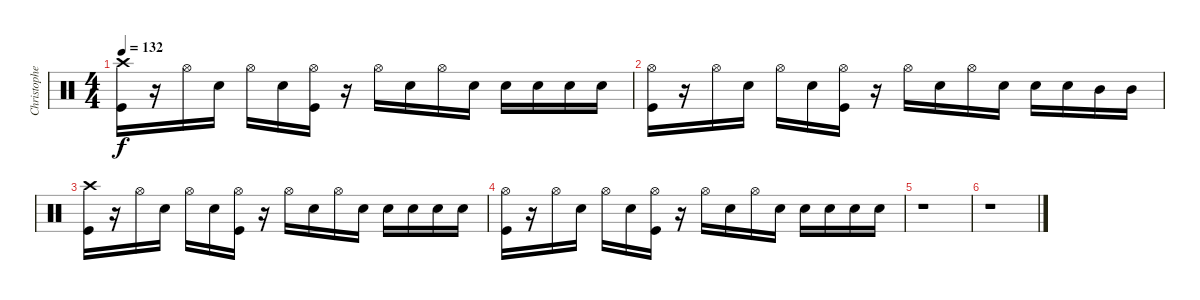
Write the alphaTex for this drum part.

\track ("Christopher - Drums" "Christophe") {instrument percussion}
\staff {score}
\articulation defaults
\ts (4 4)
\tempo 132
\clef neutral
\ks c
("Crash high (hit)" "Kick (hit)").16{dy f} r.16 "Hi-Hat (open)".16 "Snare (hit) 2".16 "Hi-Hat (open)".16 "Snare (hit) 2".16 ("Hi-Hat (open)" "Kick (hit)").16 r.16 "Hi-Hat (open)".16 "Snare (hit) 2".16 "Hi-Hat (open)".16 "Snare (hit) 2".16 "Snare (hit) 2".16 "Snare (hit) 2".16 "Snare (hit) 2".16 "Snare (hit) 2".16 |
("Hi-Hat (open)" "Kick (hit)").16 r.16 "Hi-Hat (open)".16 "Snare (hit) 2".16 "Hi-Hat (open)".16 "Snare (hit) 2".16 ("Hi-Hat (open)" "Kick (hit)").16 r.16 "Hi-Hat (open)".16 "Snare (hit) 2".16 "Hi-Hat (open)".16 "Snare (hit) 2".16 "Snare (hit) 2".16 "Snare (hit) 2".16 "Mid Tom (hit)".16 "Mid Tom (hit)".16 |
("Crash high (hit)" "Kick (hit)").16 r.16 "Hi-Hat (open)".16 "Snare (hit) 2".16 "Hi-Hat (open)".16 "Snare (hit) 2".16 ("Hi-Hat (open)" "Kick (hit)").16 r.16 "Hi-Hat (open)".16 "Snare (hit) 2".16 "Hi-Hat (open)".16 "Snare (hit) 2".16 "Snare (hit) 2".16 "Snare (hit) 2".16 "Snare (hit) 2".16 "Snare (hit) 2".16 |
("Hi-Hat (open)" "Kick (hit)").16 r.16 "Hi-Hat (open)".16 "Snare (hit) 2".16 "Hi-Hat (open)".16 "Snare (hit) 2".16 ("Hi-Hat (open)" "Kick (hit)").16 r.16 "Hi-Hat (open)".16 "Snare (hit) 2".16 "Hi-Hat (open)".16 "Snare (hit) 2".16 "Snare (hit) 2".16 "Snare (hit) 2".16 "Snare (hit) 2".16 "Snare (hit) 2".16 |
r.1 |
r.1
